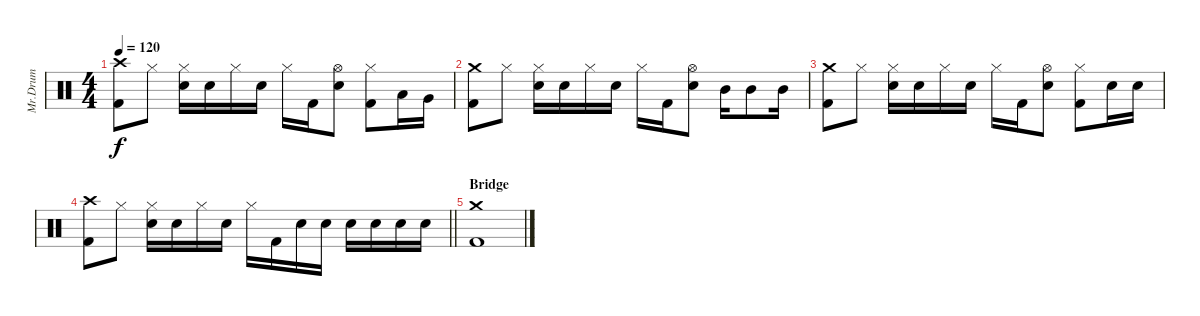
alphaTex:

\track ("Mr.Drum" "Mr.Drum") {instrument percussion}
\staff {score}
\articulation defaults
\ts (4 4)
\tempo 120
\clef neutral
\ks c
("Crash high (hit)" "Kick (hit) 2").8{dy f} "Hi-Hat (closed)".8 ("Hi-Hat (closed)" "Electric Snare (hit)").16 "Electric Snare (hit)".16 "Hi-Hat (closed)".16 "Electric Snare (hit)".16 "Hi-Hat (closed)".16 "Kick (hit) 2".16 ("Hi-Hat (open)" "Electric Snare (hit)").8 ("Hi-Hat (closed)" "Kick (hit) 2").8 "Low Floor Tom (hit)".16 "Very Low Tom (hit)".16 |
("Crash medium (hit)" "Kick (hit) 2").8 "Hi-Hat (closed)".8 ("Hi-Hat (closed)" "Electric Snare (hit)").16 "Electric Snare (hit)".16 "Hi-Hat (closed)".16 "Electric Snare (hit)".16 "Hi-Hat (closed)".16 "Kick (hit) 2".16 ("Hi-Hat (open)" "Electric Snare (hit)").8 "Mid Tom (hit)".16 "Mid Tom (hit)".8 "Mid Tom (hit)".16 |
("Crash medium (hit)" "Kick (hit) 2").8 "Hi-Hat (closed)".8 ("Hi-Hat (closed)" "Electric Snare (hit)").16 "Electric Snare (hit)".16 "Hi-Hat (closed)".16 "Electric Snare (hit)".16 "Hi-Hat (closed)".16 "Kick (hit) 2".16 ("Hi-Hat (open)" "Electric Snare (hit)").8 ("Hi-Hat (closed)" "Kick (hit) 2").8 "Electric Snare (hit)".16 "Electric Snare (hit)".16 |
\barLineRight lightlight
("Crash high (hit)" "Kick (hit) 2").8 "Hi-Hat (closed)".8 ("Hi-Hat (closed)" "Electric Snare (hit)").16 "Electric Snare (hit)".16 "Hi-Hat (closed)".16 "Electric Snare (hit)".16 "Hi-Hat (closed)".16 "Kick (hit) 2".16 "Electric Snare (hit)".16 "Electric Snare (hit)".16 "Electric Snare (hit)".16 "Electric Snare (hit)".16 "Electric Snare (hit)".16 "Electric Snare (hit)".16 |
\section ("" "Bridge")
("Crash medium (hit)" "Kick (hit) 2").1
